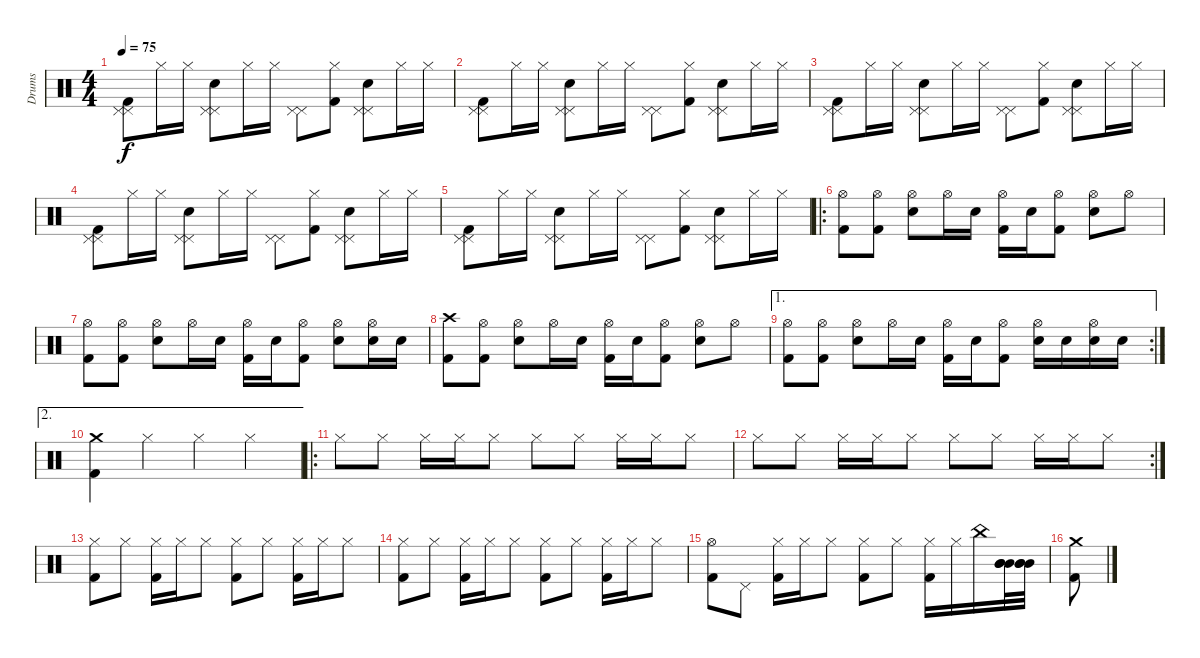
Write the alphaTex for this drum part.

\track ("Drums" "Drums") {instrument percussion}
\staff {score}
\articulation defaults
\ts (4 4)
\tempo 75
\clef neutral
\ks c
("Pedal Hi-Hat (hit)" "Pedal Hi-Hat (hit)" "Kick (hit) 2").8{dy f} "Hi-Hat (closed)".16 "Hi-Hat (closed)".16 ("Pedal Hi-Hat (hit)" "Pedal Hi-Hat (hit)" "Electric Snare (hit)").8 "Hi-Hat (closed)".16 "Hi-Hat (closed)".16 ("Pedal Hi-Hat (hit)" "Pedal Hi-Hat (hit)").8 ("Hi-Hat (closed)" "Kick (hit) 2").8 ("Pedal Hi-Hat (hit)" "Pedal Hi-Hat (hit)" "Electric Snare (hit)").8 "Hi-Hat (closed)".16 "Hi-Hat (closed)".16 |
("Pedal Hi-Hat (hit)" "Pedal Hi-Hat (hit)" "Kick (hit) 2").8 "Hi-Hat (closed)".16 "Hi-Hat (closed)".16 ("Pedal Hi-Hat (hit)" "Pedal Hi-Hat (hit)" "Electric Snare (hit)").8 "Hi-Hat (closed)".16 "Hi-Hat (closed)".16 ("Pedal Hi-Hat (hit)" "Pedal Hi-Hat (hit)").8 ("Hi-Hat (closed)" "Kick (hit) 2").8 ("Pedal Hi-Hat (hit)" "Pedal Hi-Hat (hit)" "Electric Snare (hit)").8 "Hi-Hat (closed)".16 "Hi-Hat (closed)".16 |
("Pedal Hi-Hat (hit)" "Pedal Hi-Hat (hit)" "Kick (hit) 2").8 "Hi-Hat (closed)".16 "Hi-Hat (closed)".16 ("Pedal Hi-Hat (hit)" "Pedal Hi-Hat (hit)" "Electric Snare (hit)").8 "Hi-Hat (closed)".16 "Hi-Hat (closed)".16 ("Pedal Hi-Hat (hit)" "Pedal Hi-Hat (hit)").8 ("Hi-Hat (closed)" "Kick (hit) 2").8 ("Pedal Hi-Hat (hit)" "Pedal Hi-Hat (hit)" "Electric Snare (hit)").8 "Hi-Hat (closed)".16 "Hi-Hat (closed)".16 |
("Pedal Hi-Hat (hit)" "Pedal Hi-Hat (hit)" "Kick (hit) 2").8 "Hi-Hat (closed)".16 "Hi-Hat (closed)".16 ("Pedal Hi-Hat (hit)" "Pedal Hi-Hat (hit)" "Electric Snare (hit)").8 "Hi-Hat (closed)".16 "Hi-Hat (closed)".16 ("Pedal Hi-Hat (hit)" "Pedal Hi-Hat (hit)").8 ("Hi-Hat (closed)" "Kick (hit) 2").8 ("Pedal Hi-Hat (hit)" "Pedal Hi-Hat (hit)" "Electric Snare (hit)").8 "Hi-Hat (closed)".16 "Hi-Hat (closed)".16 |
("Pedal Hi-Hat (hit)" "Pedal Hi-Hat (hit)" "Kick (hit) 2").8 "Hi-Hat (closed)".16 "Hi-Hat (closed)".16 ("Pedal Hi-Hat (hit)" "Pedal Hi-Hat (hit)" "Electric Snare (hit)").8 "Hi-Hat (closed)".16 "Hi-Hat (closed)".16 ("Pedal Hi-Hat (hit)" "Pedal Hi-Hat (hit)").8 ("Hi-Hat (closed)" "Kick (hit) 2").8 ("Pedal Hi-Hat (hit)" "Pedal Hi-Hat (hit)" "Electric Snare (hit)").8 "Hi-Hat (closed)".16 "Hi-Hat (closed)".16 |
\ro
("Hi-Hat (open)" "Kick (hit) 2").8 ("Hi-Hat (open)" "Kick (hit) 2").8 ("Hi-Hat (open)" "Electric Snare (hit)").8 "Hi-Hat (open)".16 "Electric Snare (hit)".16 ("Hi-Hat (open)" "Kick (hit) 2").16 "Electric Snare (hit)".16 ("Hi-Hat (open)" "Kick (hit) 2").8 ("Hi-Hat (open)" "Electric Snare (hit)").8 "Hi-Hat (open)".8 |
("Hi-Hat (open)" "Kick (hit) 2").8 ("Hi-Hat (open)" "Kick (hit) 2").8 ("Hi-Hat (open)" "Electric Snare (hit)").8 "Hi-Hat (open)".16 "Electric Snare (hit)".16 ("Hi-Hat (open)" "Kick (hit) 2").16 "Electric Snare (hit)".16 ("Hi-Hat (open)" "Kick (hit) 2").8 ("Hi-Hat (open)" "Electric Snare (hit)").8 ("Hi-Hat (open)" "Electric Snare (hit)").16 "Electric Snare (hit)".16 |
("Crash high (hit)" "Kick (hit) 2").8 ("Hi-Hat (open)" "Kick (hit) 2").8 ("Hi-Hat (open)" "Electric Snare (hit)").8 "Hi-Hat (open)".16 "Electric Snare (hit)".16 ("Hi-Hat (open)" "Kick (hit) 2").16 "Electric Snare (hit)".16 ("Hi-Hat (open)" "Kick (hit) 2").8 ("Hi-Hat (open)" "Electric Snare (hit)").8 "Hi-Hat (open)".8 |
\ae 1
\rc 2
("Hi-Hat (open)" "Kick (hit) 2").8 ("Hi-Hat (open)" "Kick (hit) 2").8 ("Hi-Hat (open)" "Electric Snare (hit)").8 "Hi-Hat (open)".16 "Electric Snare (hit)".16 ("Hi-Hat (open)" "Kick (hit) 2").16 "Electric Snare (hit)".16 ("Hi-Hat (open)" "Kick (hit) 2").8 ("Hi-Hat (open)" "Electric Snare (hit)").16 "Electric Snare (hit)".16 ("Hi-Hat (open)" "Electric Snare (hit)").16 "Electric Snare (hit)".16 |
\ae 2
("Crash medium (hit)" "Kick (hit) 2").4 "Hi-Hat (closed)".4 "Hi-Hat (closed)".4 "Hi-Hat (closed)".4 |
\ro "Hi-Hat (closed)".8 "Hi-Hat (closed)".8 "Hi-Hat (closed)".16 "Hi-Hat (closed)".16 "Hi-Hat (closed)".8 "Hi-Hat (closed)".8 "Hi-Hat (closed)".8 "Hi-Hat (closed)".16 "Hi-Hat (closed)".16 "Hi-Hat (closed)".8
|
\rc 2 "Hi-Hat (closed)".8 "Hi-Hat (closed)".8 "Hi-Hat (closed)".16 "Hi-Hat (closed)".16 "Hi-Hat (closed)".8 "Hi-Hat (closed)".8 "Hi-Hat (closed)".8 "Hi-Hat (closed)".16 "Hi-Hat (closed)".16 "Hi-Hat (closed)".8
|
("Hi-Hat (closed)" "Kick (hit) 2").8 "Hi-Hat (closed)".8 ("Hi-Hat (closed)" "Kick (hit) 2").16 "Hi-Hat (closed)".16 "Hi-Hat (closed)".8 ("Hi-Hat (closed)" "Kick (hit) 2").8 "Hi-Hat (closed)".8 ("Hi-Hat (closed)" "Kick (hit) 2").16 "Hi-Hat (closed)".16 "Hi-Hat (closed)".8 |
("Hi-Hat (closed)" "Kick (hit) 2").8 "Hi-Hat (closed)".8 ("Hi-Hat (closed)" "Kick (hit) 2").16 "Hi-Hat (closed)".16 "Hi-Hat (closed)".8 ("Hi-Hat (closed)" "Kick (hit) 2").8 "Hi-Hat (closed)".8 ("Hi-Hat (closed)" "Kick (hit) 2").16 "Hi-Hat (closed)".16 "Hi-Hat (closed)".8 |
("Hi-Hat (open)" "Kick (hit) 2").8 "Pedal Hi-Hat (hit)".8 ("Hi-Hat (closed)" "Kick (hit) 2").16 "Hi-Hat (closed)".16 "Hi-Hat (closed)".8 ("Hi-Hat (closed)" "Kick (hit) 2").8 "Hi-Hat (closed)".8 ("Hi-Hat (closed)" "Kick (hit) 2").16 "Hi-Hat (closed)".16 "China (hit)".16 ("Mid Tom (hit)" "Mid Tom (hit)" "Mid Tom (hit)").32 ("Mid Tom (hit)" "Mid Tom (hit)" "Mid Tom (hit)").32 |
("Crash medium (hit)" "Kick (hit) 2").8
